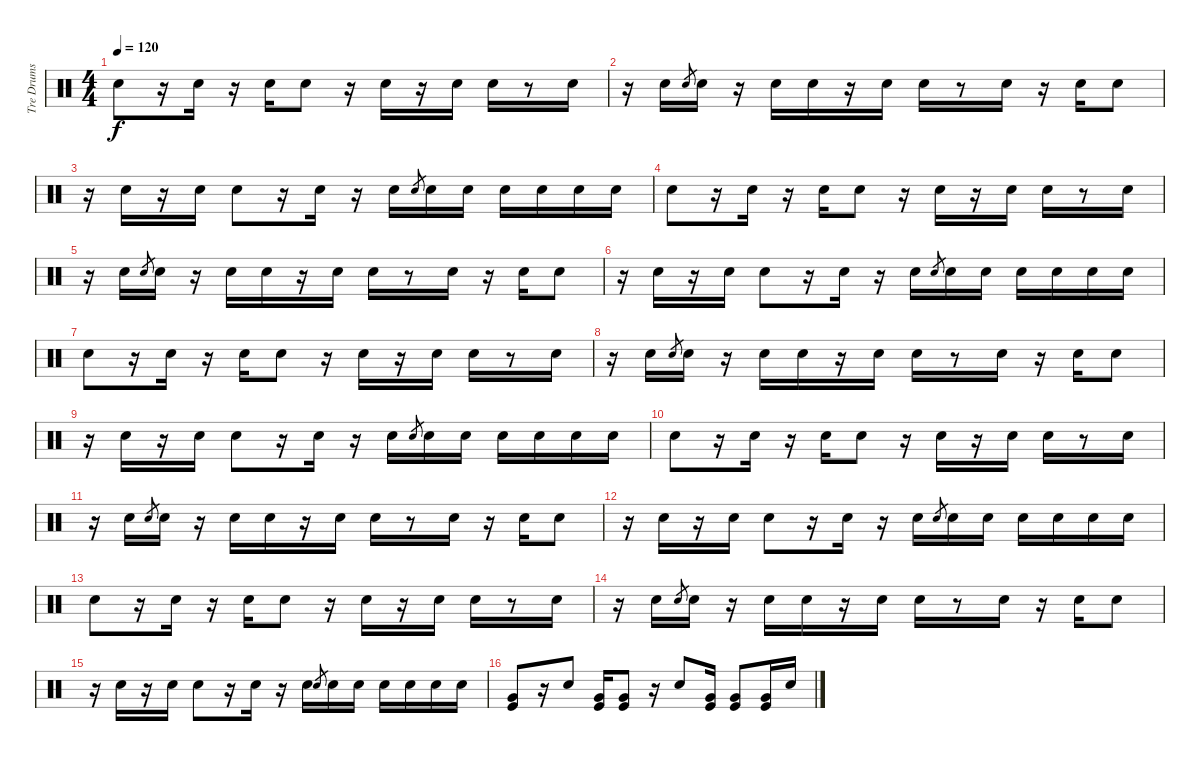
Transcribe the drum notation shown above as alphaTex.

\track ("Tre Drums" "Tre Drums") {instrument percussion}
\staff {score}
\articulation defaults
\ts (4 4)
\tempo 120
\clef neutral
\ks c "Electric Snare (hit)".8{dy f}
r.16 "Electric Snare (hit)".16 r.16 "Electric Snare (hit)".16 "Electric Snare (hit)".8 r.16 "Electric Snare (hit)".16 r.16 "Electric Snare (hit)".16 "Electric Snare (hit)".16 r.8 "Electric Snare (hit)".16 |
r.16 "Electric Snare (hit)".16 "Electric Snare (hit)".8{gr} "Electric Snare (hit)".16 r.16 "Electric Snare (hit)".16 "Electric Snare (hit)".16 r.16 "Electric Snare (hit)".16 "Electric Snare (hit)".16 r.8 "Electric Snare (hit)".16 r.16 "Electric Snare (hit)".16 "Electric Snare (hit)".8 |
r.16 "Electric Snare (hit)".16 r.16 "Electric Snare (hit)".16 "Electric Snare (hit)".8 r.16 "Electric Snare (hit)".16 r.16 "Electric Snare (hit)".16 "Electric Snare (hit)".8{gr} "Electric Snare (hit)".16 "Electric Snare (hit)".16 "Electric Snare (hit)".16 "Electric Snare (hit)".16 "Electric Snare (hit)".16 "Electric Snare (hit)".16 |
"Electric Snare (hit)".8 r.16 "Electric Snare (hit)".16 r.16 "Electric Snare (hit)".16 "Electric Snare (hit)".8 r.16 "Electric Snare (hit)".16 r.16 "Electric Snare (hit)".16 "Electric Snare (hit)".16 r.8 "Electric Snare (hit)".16 |
r.16 "Electric Snare (hit)".16 "Electric Snare (hit)".8{gr} "Electric Snare (hit)".16 r.16 "Electric Snare (hit)".16 "Electric Snare (hit)".16 r.16 "Electric Snare (hit)".16 "Electric Snare (hit)".16 r.8 "Electric Snare (hit)".16 r.16 "Electric Snare (hit)".16 "Electric Snare (hit)".8 |
r.16 "Electric Snare (hit)".16 r.16 "Electric Snare (hit)".16 "Electric Snare (hit)".8 r.16 "Electric Snare (hit)".16 r.16 "Electric Snare (hit)".16 "Electric Snare (hit)".8{gr} "Electric Snare (hit)".16 "Electric Snare (hit)".16 "Electric Snare (hit)".16 "Electric Snare (hit)".16 "Electric Snare (hit)".16 "Electric Snare (hit)".16 |
"Electric Snare (hit)".8 r.16 "Electric Snare (hit)".16 r.16 "Electric Snare (hit)".16 "Electric Snare (hit)".8 r.16 "Electric Snare (hit)".16 r.16 "Electric Snare (hit)".16 "Electric Snare (hit)".16 r.8 "Electric Snare (hit)".16 |
r.16 "Electric Snare (hit)".16 "Electric Snare (hit)".8{gr} "Electric Snare (hit)".16 r.16 "Electric Snare (hit)".16 "Electric Snare (hit)".16 r.16 "Electric Snare (hit)".16 "Electric Snare (hit)".16 r.8 "Electric Snare (hit)".16 r.16 "Electric Snare (hit)".16 "Electric Snare (hit)".8 |
r.16 "Electric Snare (hit)".16 r.16 "Electric Snare (hit)".16 "Electric Snare (hit)".8 r.16 "Electric Snare (hit)".16 r.16 "Electric Snare (hit)".16 "Electric Snare (hit)".8{gr} "Electric Snare (hit)".16 "Electric Snare (hit)".16 "Electric Snare (hit)".16 "Electric Snare (hit)".16 "Electric Snare (hit)".16 "Electric Snare (hit)".16 |
"Electric Snare (hit)".8 r.16 "Electric Snare (hit)".16 r.16 "Electric Snare (hit)".16 "Electric Snare (hit)".8 r.16 "Electric Snare (hit)".16 r.16 "Electric Snare (hit)".16 "Electric Snare (hit)".16 r.8 "Electric Snare (hit)".16 |
r.16 "Electric Snare (hit)".16 "Electric Snare (hit)".8{gr} "Electric Snare (hit)".16 r.16 "Electric Snare (hit)".16 "Electric Snare (hit)".16 r.16 "Electric Snare (hit)".16 "Electric Snare (hit)".16 r.8 "Electric Snare (hit)".16 r.16 "Electric Snare (hit)".16 "Electric Snare (hit)".8 |
r.16 "Electric Snare (hit)".16 r.16 "Electric Snare (hit)".16 "Electric Snare (hit)".8 r.16 "Electric Snare (hit)".16 r.16 "Electric Snare (hit)".16 "Electric Snare (hit)".8{gr} "Electric Snare (hit)".16 "Electric Snare (hit)".16 "Electric Snare (hit)".16 "Electric Snare (hit)".16 "Electric Snare (hit)".16 "Electric Snare (hit)".16 |
"Electric Snare (hit)".8 r.16 "Electric Snare (hit)".16 r.16 "Electric Snare (hit)".16 "Electric Snare (hit)".8 r.16 "Electric Snare (hit)".16 r.16 "Electric Snare (hit)".16 "Electric Snare (hit)".16 r.8 "Electric Snare (hit)".16 |
r.16 "Electric Snare (hit)".16 "Electric Snare (hit)".8{gr} "Electric Snare (hit)".16 r.16 "Electric Snare (hit)".16 "Electric Snare (hit)".16 r.16 "Electric Snare (hit)".16 "Electric Snare (hit)".16 r.8 "Electric Snare (hit)".16 r.16 "Electric Snare (hit)".16 "Electric Snare (hit)".8 |
r.16 "Electric Snare (hit)".16 r.16 "Electric Snare (hit)".16 "Electric Snare (hit)".8 r.16 "Electric Snare (hit)".16 r.16 "Electric Snare (hit)".16 "Electric Snare (hit)".8{gr} "Electric Snare (hit)".16 "Electric Snare (hit)".16 "Electric Snare (hit)".16 "Electric Snare (hit)".16 "Electric Snare (hit)".16 "Electric Snare (hit)".16 |
("Very Low Tom (hit)" "Kick (hit)").8 r.16 "Electric Snare (hit)".8 ("Very Low Tom (hit)" "Kick (hit)").16 ("Very Low Tom (hit)" "Kick (hit)").8 r.16 "Electric Snare (hit)".8 ("Very Low Tom (hit)" "Kick (hit)").16 ("Very Low Tom (hit)" "Kick (hit)").8 ("Very Low Tom (hit)" "Kick (hit)").16 "Electric Snare (hit)".16
